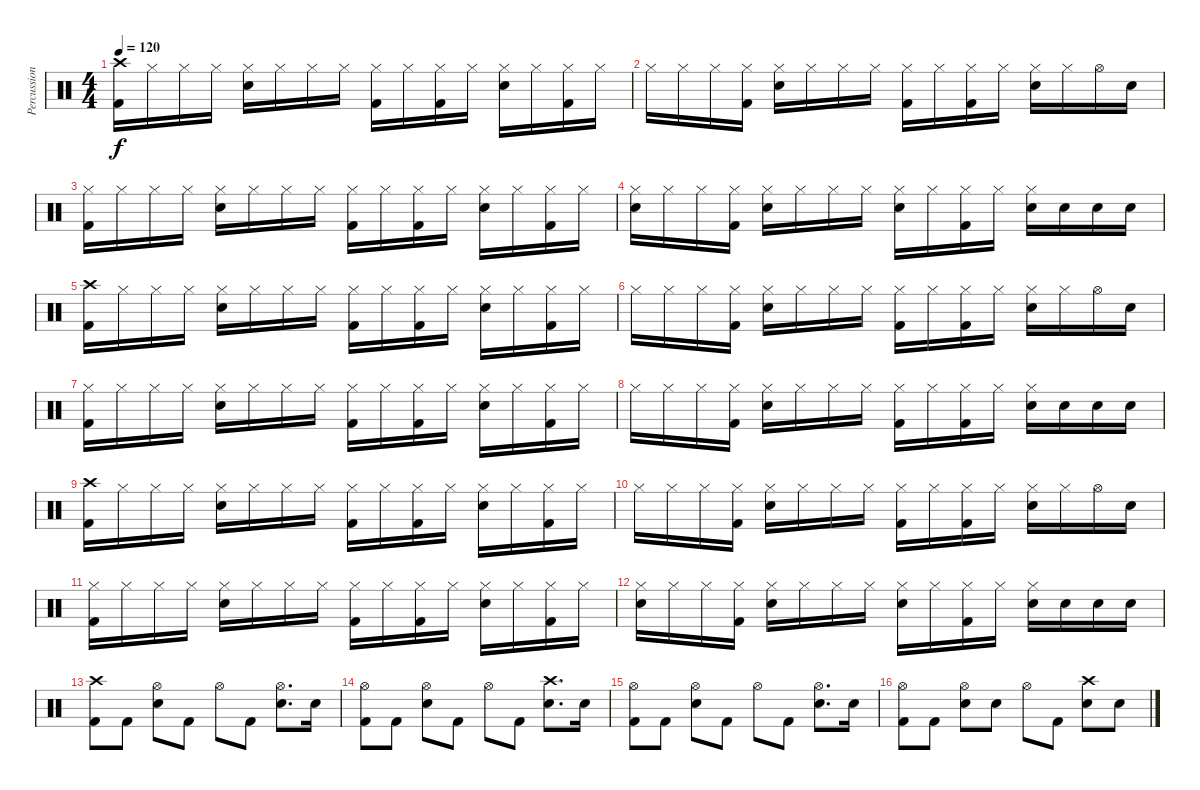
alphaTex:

\track ("Percussion" "Percussion") {instrument percussion}
\staff {score}
\articulation defaults
\ts (4 4)
\tempo 120
\clef neutral
\ks c
("Crash high (hit)" "Kick (hit) 2").16{dy f} "Hi-Hat (closed)".16 "Hi-Hat (closed)".16 "Hi-Hat (closed)".16 ("Hi-Hat (closed)" "Electric Snare (hit)").16 "Hi-Hat (closed)".16 "Hi-Hat (closed)".16 "Hi-Hat (closed)".16 ("Hi-Hat (closed)" "Kick (hit) 2").16 "Hi-Hat (closed)".16 ("Hi-Hat (closed)" "Kick (hit) 2").16 "Hi-Hat (closed)".16 ("Hi-Hat (closed)" "Electric Snare (hit)").16 "Hi-Hat (closed)".16 ("Hi-Hat (closed)" "Kick (hit) 2").16 "Hi-Hat (closed)".16 |
"Hi-Hat (closed)".16 "Hi-Hat (closed)".16 "Hi-Hat (closed)".16 ("Hi-Hat (closed)" "Kick (hit) 2").16 ("Hi-Hat (closed)" "Electric Snare (hit)").16 "Hi-Hat (closed)".16 "Hi-Hat (closed)".16 "Hi-Hat (closed)".16 ("Hi-Hat (closed)" "Kick (hit) 2").16 "Hi-Hat (closed)".16 ("Hi-Hat (closed)" "Kick (hit) 2").16 "Hi-Hat (closed)".16 ("Hi-Hat (closed)" "Electric Snare (hit)").16 "Hi-Hat (closed)".16 "Hi-Hat (open)".16 "Electric Snare (hit)".16 |
("Hi-Hat (closed)" "Kick (hit) 2").16 "Hi-Hat (closed)".16 "Hi-Hat (closed)".16 "Hi-Hat (closed)".16 ("Hi-Hat (closed)" "Electric Snare (hit)").16 "Hi-Hat (closed)".16 "Hi-Hat (closed)".16 "Hi-Hat (closed)".16 ("Hi-Hat (closed)" "Kick (hit) 2").16 "Hi-Hat (closed)".16 ("Hi-Hat (closed)" "Kick (hit) 2").16 "Hi-Hat (closed)".16 ("Hi-Hat (closed)" "Electric Snare (hit)").16 "Hi-Hat (closed)".16 ("Hi-Hat (closed)" "Kick (hit) 2").16 "Hi-Hat (closed)".16 |
("Hi-Hat (closed)" "Electric Snare (hit)").16 "Hi-Hat (closed)".16 "Hi-Hat (closed)".16 ("Hi-Hat (closed)" "Kick (hit) 2").16 ("Hi-Hat (closed)" "Electric Snare (hit)").16 "Hi-Hat (closed)".16 "Hi-Hat (closed)".16 "Hi-Hat (closed)".16 ("Hi-Hat (closed)" "Electric Snare (hit)").16 "Hi-Hat (closed)".16 ("Hi-Hat (closed)" "Kick (hit) 2").16 "Hi-Hat (closed)".16 ("Hi-Hat (closed)" "Electric Snare (hit)").16 "Electric Snare (hit)".16 "Electric Snare (hit)".16 "Electric Snare (hit)".16 |
("Crash high (hit)" "Kick (hit) 2").16 "Hi-Hat (closed)".16 "Hi-Hat (closed)".16 "Hi-Hat (closed)".16 ("Hi-Hat (closed)" "Electric Snare (hit)").16 "Hi-Hat (closed)".16 "Hi-Hat (closed)".16 "Hi-Hat (closed)".16 ("Hi-Hat (closed)" "Kick (hit) 2").16 "Hi-Hat (closed)".16 ("Hi-Hat (closed)" "Kick (hit) 2").16 "Hi-Hat (closed)".16 ("Hi-Hat (closed)" "Electric Snare (hit)").16 "Hi-Hat (closed)".16 ("Hi-Hat (closed)" "Kick (hit) 2").16 "Hi-Hat (closed)".16 |
"Hi-Hat (closed)".16 "Hi-Hat (closed)".16 "Hi-Hat (closed)".16 ("Hi-Hat (closed)" "Kick (hit) 2").16 ("Hi-Hat (closed)" "Electric Snare (hit)").16 "Hi-Hat (closed)".16 "Hi-Hat (closed)".16 "Hi-Hat (closed)".16 ("Hi-Hat (closed)" "Kick (hit) 2").16 "Hi-Hat (closed)".16 ("Hi-Hat (closed)" "Kick (hit) 2").16 "Hi-Hat (closed)".16 ("Hi-Hat (closed)" "Electric Snare (hit)").16 "Hi-Hat (closed)".16 "Hi-Hat (open)".16 "Electric Snare (hit)".16 |
("Hi-Hat (closed)" "Kick (hit) 2").16 "Hi-Hat (closed)".16 "Hi-Hat (closed)".16 "Hi-Hat (closed)".16 ("Hi-Hat (closed)" "Electric Snare (hit)").16 "Hi-Hat (closed)".16 "Hi-Hat (closed)".16 "Hi-Hat (closed)".16 ("Hi-Hat (closed)" "Kick (hit) 2").16 "Hi-Hat (closed)".16 ("Hi-Hat (closed)" "Kick (hit) 2").16 "Hi-Hat (closed)".16 ("Hi-Hat (closed)" "Electric Snare (hit)").16 "Hi-Hat (closed)".16 ("Hi-Hat (closed)" "Kick (hit) 2").16 "Hi-Hat (closed)".16 |
"Hi-Hat (closed)".16 "Hi-Hat (closed)".16 "Hi-Hat (closed)".16 ("Hi-Hat (closed)" "Kick (hit) 2").16 ("Hi-Hat (closed)" "Electric Snare (hit)").16 "Hi-Hat (closed)".16 "Hi-Hat (closed)".16 "Hi-Hat (closed)".16 ("Hi-Hat (closed)" "Kick (hit) 2").16 "Hi-Hat (closed)".16 ("Hi-Hat (closed)" "Kick (hit) 2").16 "Hi-Hat (closed)".16 ("Hi-Hat (closed)" "Electric Snare (hit)").16 "Electric Snare (hit)".16 "Electric Snare (hit)".16 "Electric Snare (hit)".16 |
("Crash high (hit)" "Kick (hit) 2").16 "Hi-Hat (closed)".16 "Hi-Hat (closed)".16 "Hi-Hat (closed)".16 ("Hi-Hat (closed)" "Electric Snare (hit)").16 "Hi-Hat (closed)".16 "Hi-Hat (closed)".16 "Hi-Hat (closed)".16 ("Hi-Hat (closed)" "Kick (hit) 2").16 "Hi-Hat (closed)".16 ("Hi-Hat (closed)" "Kick (hit) 2").16 "Hi-Hat (closed)".16 ("Hi-Hat (closed)" "Electric Snare (hit)").16 "Hi-Hat (closed)".16 ("Hi-Hat (closed)" "Kick (hit) 2").16 "Hi-Hat (closed)".16 |
"Hi-Hat (closed)".16 "Hi-Hat (closed)".16 "Hi-Hat (closed)".16 ("Hi-Hat (closed)" "Kick (hit) 2").16 ("Hi-Hat (closed)" "Electric Snare (hit)").16 "Hi-Hat (closed)".16 "Hi-Hat (closed)".16 "Hi-Hat (closed)".16 ("Hi-Hat (closed)" "Kick (hit) 2").16 "Hi-Hat (closed)".16 ("Hi-Hat (closed)" "Kick (hit) 2").16 "Hi-Hat (closed)".16 ("Hi-Hat (closed)" "Electric Snare (hit)").16 "Hi-Hat (closed)".16 "Hi-Hat (open)".16 "Electric Snare (hit)".16 |
("Hi-Hat (closed)" "Kick (hit) 2").16 "Hi-Hat (closed)".16 "Hi-Hat (closed)".16 "Hi-Hat (closed)".16 ("Hi-Hat (closed)" "Electric Snare (hit)").16 "Hi-Hat (closed)".16 "Hi-Hat (closed)".16 "Hi-Hat (closed)".16 ("Hi-Hat (closed)" "Kick (hit) 2").16 "Hi-Hat (closed)".16 ("Hi-Hat (closed)" "Kick (hit) 2").16 "Hi-Hat (closed)".16 ("Hi-Hat (closed)" "Electric Snare (hit)").16 "Hi-Hat (closed)".16 ("Hi-Hat (closed)" "Kick (hit) 2").16 "Hi-Hat (closed)".16 |
("Hi-Hat (closed)" "Electric Snare (hit)").16 "Hi-Hat (closed)".16 "Hi-Hat (closed)".16 ("Hi-Hat (closed)" "Kick (hit) 2").16 ("Hi-Hat (closed)" "Electric Snare (hit)").16 "Hi-Hat (closed)".16 "Hi-Hat (closed)".16 "Hi-Hat (closed)".16 ("Hi-Hat (closed)" "Electric Snare (hit)").16 "Hi-Hat (closed)".16 ("Hi-Hat (closed)" "Kick (hit) 2").16 "Hi-Hat (closed)".16 ("Hi-Hat (closed)" "Electric Snare (hit)").16 "Electric Snare (hit)".16 "Electric Snare (hit)".16 "Electric Snare (hit)".16 |
("Crash high (hit)" "Kick (hit) 2").8 "Kick (hit) 2".8 ("Hi-Hat (open)" "Electric Snare (hit)").8 "Kick (hit) 2".8 "Hi-Hat (open)".8 "Kick (hit) 2".8 ("Hi-Hat (open)" "Electric Snare (hit)").8{d} "Electric Snare (hit)".16 |
("Hi-Hat (open)" "Kick (hit) 2").8 "Kick (hit) 2".8 ("Hi-Hat (open)" "Electric Snare (hit)").8 "Kick (hit) 2".8 "Hi-Hat (open)".8 "Kick (hit) 2".8 ("Crash high (hit)" "Electric Snare (hit)").8{d} "Electric Snare (hit)".16 |
("Hi-Hat (open)" "Kick (hit) 2").8 "Kick (hit) 2".8 ("Hi-Hat (open)" "Electric Snare (hit)").8 "Kick (hit) 2".8 "Hi-Hat (open)".8 "Kick (hit) 2".8 ("Hi-Hat (open)" "Electric Snare (hit)").8{d} "Electric Snare (hit)".16 |
("Hi-Hat (open)" "Kick (hit) 2").8 "Kick (hit) 2".8 ("Hi-Hat (open)" "Electric Snare (hit)").8 "Electric Snare (hit)".8 "Hi-Hat (open)".8 "Kick (hit) 2".8 ("Crash high (hit)" "Electric Snare (hit)").8 "Electric Snare (hit)".8
